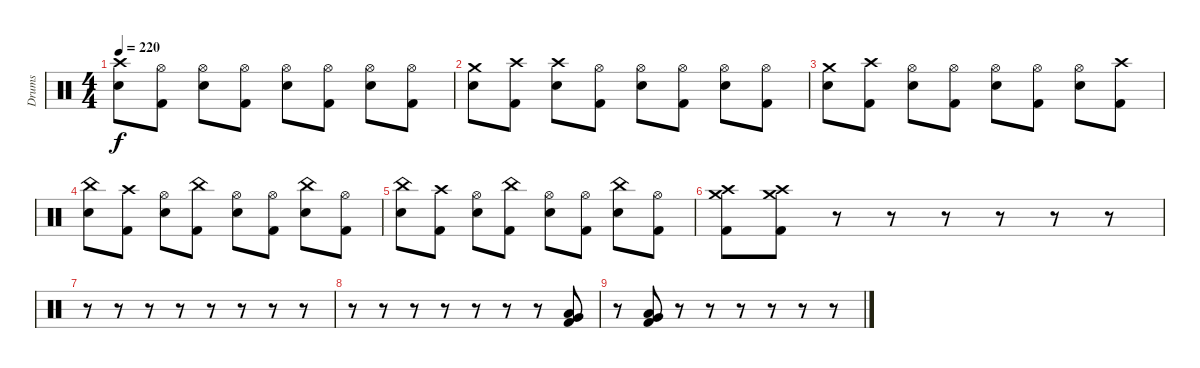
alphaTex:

\track ("Drums" "Drums") {instrument percussion}
\staff {score}
\articulation defaults
\ts (4 4)
\tempo 220
\clef neutral
\ks c
("Crash high (hit)" "Electric Snare (hit)").8{dy f} ("Hi-Hat (open)" "Kick (hit) 2").8 ("Hi-Hat (open)" "Electric Snare (hit)").8 ("Hi-Hat (open)" "Kick (hit) 2").8 ("Hi-Hat (open)" "Electric Snare (hit)").8 ("Hi-Hat (open)" "Kick (hit) 2").8 ("Hi-Hat (open)" "Electric Snare (hit)").8 ("Hi-Hat (open)" "Kick (hit) 2").8 |
("Crash medium (hit)" "Electric Snare (hit)").8 ("Crash high (hit)" "Kick (hit) 2").8 ("Crash high (hit)" "Electric Snare (hit)").8 ("Hi-Hat (open)" "Kick (hit) 2").8 ("Hi-Hat (open)" "Electric Snare (hit)").8 ("Hi-Hat (open)" "Kick (hit) 2").8 ("Hi-Hat (open)" "Electric Snare (hit)").8 ("Hi-Hat (open)" "Kick (hit) 2").8 |
("Crash medium (hit)" "Electric Snare (hit)").8 ("Crash high (hit)" "Kick (hit) 2").8 ("Hi-Hat (open)" "Electric Snare (hit)").8 ("Hi-Hat (open)" "Kick (hit) 2").8 ("Hi-Hat (open)" "Electric Snare (hit)").8 ("Hi-Hat (open)" "Kick (hit) 2").8 ("Hi-Hat (open)" "Electric Snare (hit)").8 ("Crash high (hit)" "Kick (hit) 2").8 |
("China (hit)" "Electric Snare (hit)").8 ("Crash high (hit)" "Kick (hit) 2").8 ("Hi-Hat (open)" "Electric Snare (hit)").8 ("China (hit)" "Kick (hit) 2").8 ("Hi-Hat (open)" "Electric Snare (hit)").8 ("Hi-Hat (open)" "Kick (hit) 2").8 ("China (hit)" "Electric Snare (hit)").8 ("Hi-Hat (open)" "Kick (hit) 2").8 |
("China (hit)" "Electric Snare (hit)").8 ("Crash high (hit)" "Kick (hit) 2").8 ("Hi-Hat (open)" "Electric Snare (hit)").8 ("China (hit)" "Kick (hit) 2").8 ("Hi-Hat (open)" "Electric Snare (hit)").8 ("Hi-Hat (open)" "Kick (hit) 2").8 ("China (hit)" "Electric Snare (hit)").8 ("Hi-Hat (open)" "Kick (hit) 2").8 |
("Crash high (hit)" "Crash medium (hit)" "Kick (hit) 2").8 ("Crash high (hit)" "Crash medium (hit)" "Kick (hit) 2").8 r.8 r.8 r.8 r.8 r.8 r.8 |
r.8 r.8 r.8 r.8 r.8 r.8 r.8 r.8 |
r.8 r.8 r.8 r.8 r.8 r.8 r.8 ("Very Low Tom (hit)" "Low Floor Tom (hit)" "Kick (hit) 2").8 |
r.8 ("Very Low Tom (hit)" "Low Floor Tom (hit)" "Kick (hit) 2").8 r.8 r.8 r.8 r.8 r.8 r.8
